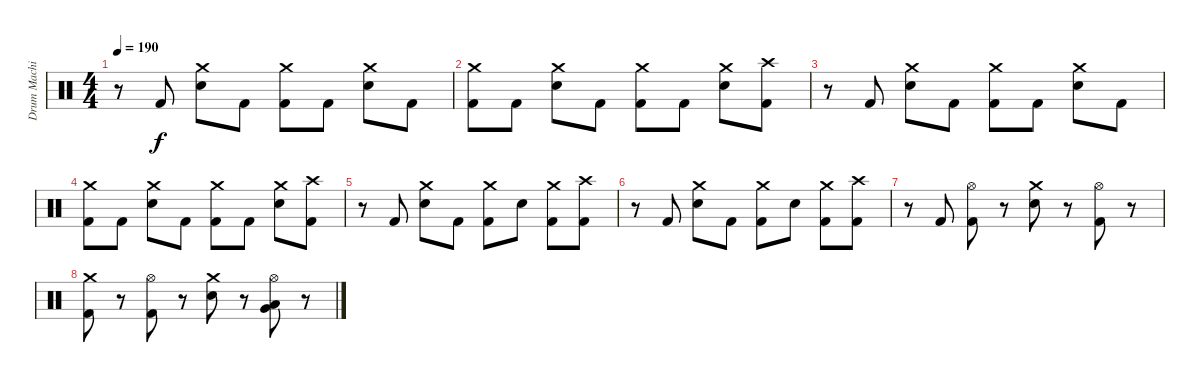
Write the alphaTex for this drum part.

\track ("Drum Machine Man" "Drum Machi") {instrument percussion}
\staff {score}
\articulation defaults
\ts (4 4)
\tempo 190
\clef neutral
\ks c
r.8{dy f} "Kick (hit) 2".8 ("Crash medium (hit)" "Electric Snare (hit)").8 "Kick (hit) 2".8 ("Crash medium (hit)" "Kick (hit) 2").8 "Kick (hit) 2".8 ("Crash medium (hit)" "Electric Snare (hit)").8 "Kick (hit) 2".8 |
("Crash medium (hit)" "Kick (hit) 2").8 "Kick (hit) 2".8 ("Crash medium (hit)" "Electric Snare (hit)").8 "Kick (hit) 2".8 ("Crash medium (hit)" "Kick (hit) 2").8 "Kick (hit) 2".8 ("Crash medium (hit)" "Electric Snare (hit)").8 ("Crash high (hit)" "Kick (hit) 2").8 |
r.8 "Kick (hit) 2".8 ("Crash medium (hit)" "Electric Snare (hit)").8 "Kick (hit) 2".8 ("Crash medium (hit)" "Kick (hit) 2").8 "Kick (hit) 2".8 ("Crash medium (hit)" "Electric Snare (hit)").8 "Kick (hit) 2".8 |
("Crash medium (hit)" "Kick (hit) 2").8 "Kick (hit) 2".8 ("Crash medium (hit)" "Electric Snare (hit)").8 "Kick (hit) 2".8 ("Crash medium (hit)" "Kick (hit) 2").8 "Kick (hit) 2".8 ("Crash medium (hit)" "Electric Snare (hit)").8 ("Crash high (hit)" "Kick (hit) 2").8 |
r.8 "Kick (hit) 2".8 ("Crash medium (hit)" "Electric Snare (hit)").8 "Kick (hit) 2".8 ("Crash medium (hit)" "Kick (hit) 2").8 "Electric Snare (hit)".8 ("Crash medium (hit)" "Kick (hit) 2").8 ("Crash high (hit)" "Kick (hit) 2").8 |
r.8 "Kick (hit) 2".8 ("Crash medium (hit)" "Electric Snare (hit)").8 "Kick (hit) 2".8 ("Crash medium (hit)" "Kick (hit) 2").8 "Electric Snare (hit)".8 ("Crash medium (hit)" "Kick (hit) 2").8 ("Crash high (hit)" "Kick (hit) 2").8 |
r.8 "Kick (hit) 2".8 ("Hi-Hat (open)" "Kick (hit) 2").8 r.8 ("Crash medium (hit)" "Electric Snare (hit)").8 r.8 ("Hi-Hat (open)" "Kick (hit) 2").8 r.8 |
("Crash medium (hit)" "Kick (hit) 2").8 r.8 ("Hi-Hat (open)" "Kick (hit) 2").8 r.8 ("Crash medium (hit)" "Electric Snare (hit)").8 r.8 ("Hi-Hat (open)" "Low Tom (hit)" "Very Low Tom (hit)").8{bd 60} r.8
